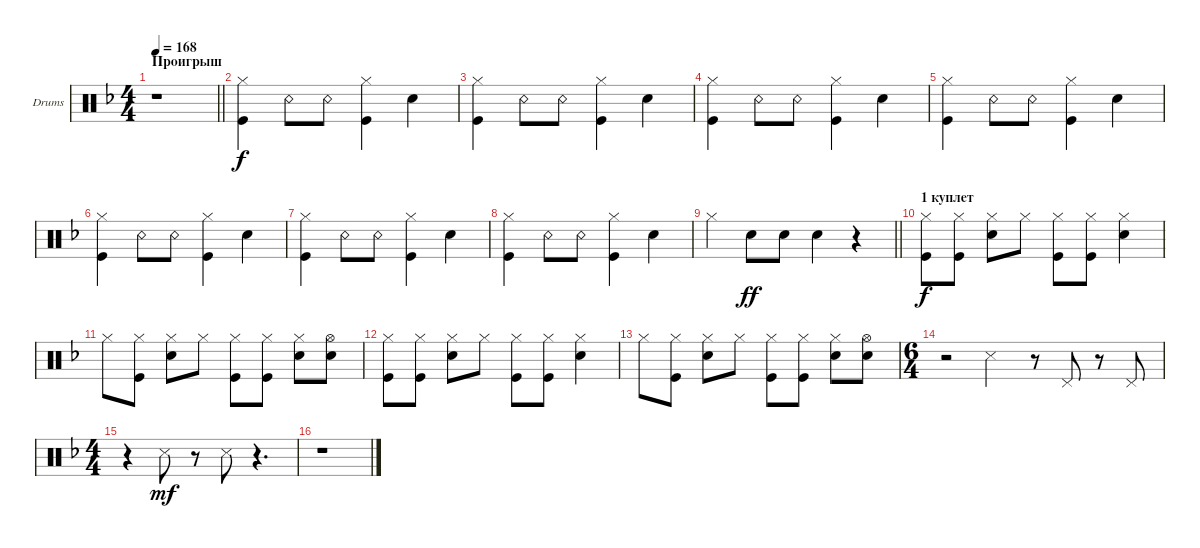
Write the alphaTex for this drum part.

\defaultSystemsLayout 4
\bracketExtendMode groupsimilarinstruments
\firstSystemTrackNameOrientation horizontal
\otherSystemsTrackNameOrientation horizontal
\track ("Drumkit" "Drums") {instrument percussion}
\staff {score}
\articulation defaults
\ts (4 4)
\section ("" "Проигрыш")
\tempo 168
\clef neutral
\scale
0.5
\barLineRight lightlight
\ks f
r.1{dy f} |
\scale
0.25 ("Kick (hit)" "Hi-Hat (closed)").4 "Snare (rim shot)".8 "Snare (rim shot)".8 ("Kick (hit)" "Hi-Hat (closed)").4 "Snare (hit) 2".4 |
\scale
0.25 ("Kick (hit)" "Hi-Hat (closed)").4 "Snare (rim shot)".8 "Snare (rim shot)".8 ("Kick (hit)" "Hi-Hat (closed)").4 "Snare (hit) 2".4 |
\scale
0.333333 ("Kick (hit)" "Hi-Hat (closed)").4 "Snare (rim shot)".8 "Snare (rim shot)".8 ("Kick (hit)" "Hi-Hat (closed)").4 "Snare (hit) 2".4 |
\scale
0.333333 ("Kick (hit)" "Hi-Hat (closed)").4 "Snare (rim shot)".8 "Snare (rim shot)".8 ("Kick (hit)" "Hi-Hat (closed)").4 "Snare (hit) 2".4 |
\scale
0.333333 ("Kick (hit)" "Hi-Hat (closed)").4 "Snare (rim shot)".8 "Snare (rim shot)".8 ("Kick (hit)" "Hi-Hat (closed)").4 "Snare (hit) 2".4 |
\scale
0.333333 ("Kick (hit)" "Hi-Hat (closed)").4 "Snare (rim shot)".8 "Snare (rim shot)".8 ("Kick (hit)" "Hi-Hat (closed)").4 "Snare (hit) 2".4 |
\scale
0.333333 ("Kick (hit)" "Hi-Hat (closed)").4 "Snare (rim shot)".8 "Snare (rim shot)".8 ("Kick (hit)" "Hi-Hat (closed)").4 "Snare (hit) 2".4 |
\scale
0.333333
\barLineRight lightlight "Hi-Hat (closed)".4 "Snare (hit) 2".8{dy ff} "Snare (hit) 2".8 "Snare (hit) 2".4
r.4 |
\section ("" "1 куплет")
\scale
0.333333 ("Hi-Hat (closed)" "Kick (hit)").8{dy f} ("Hi-Hat (closed)" "Kick (hit)").8 ("Hi-Hat (closed)" "Snare (hit) 2").8 "Hi-Hat (closed)".8 ("Hi-Hat (closed)" "Kick (hit)").8 ("Hi-Hat (closed)" "Kick (hit)").8 ("Hi-Hat (closed)" "Snare (hit) 2").4 |
\scale
0.333333 "Hi-Hat (closed)".8 ("Hi-Hat (closed)" "Kick (hit)").8 ("Hi-Hat (closed)" "Snare (hit) 2").8 "Hi-Hat (closed)".8 ("Hi-Hat (closed)" "Kick (hit)").8 ("Hi-Hat (closed)" "Kick (hit)").8 ("Hi-Hat (closed)" "Snare (hit) 2").8 ("Hi-Hat (open)" "Snare (hit) 2").8 |
\scale
0.333333 ("Hi-Hat (closed)" "Kick (hit)").8 ("Hi-Hat (closed)" "Kick (hit)").8 ("Hi-Hat (closed)" "Snare (hit) 2").8 "Hi-Hat (closed)".8 ("Hi-Hat (closed)" "Kick (hit)").8 ("Hi-Hat (closed)" "Kick (hit)").8 ("Hi-Hat (closed)" "Snare (hit) 2").4 |
\scale
0.2 "Hi-Hat (closed)".8 ("Hi-Hat (closed)" "Kick (hit)").8 ("Hi-Hat (closed)" "Snare (hit) 2").8 "Hi-Hat (closed)".8 ("Hi-Hat (closed)" "Kick (hit)").8 ("Hi-Hat (closed)" "Kick (hit)").8 ("Hi-Hat (closed)" "Snare (hit) 2").8 ("Hi-Hat (open)" "Snare (hit) 2").8 |
\ts (6 4)
\scale
0.4 r.2 "Snare (side stick) 3".2 r.8 "Pedal Hi-Hat (hit)".8 r.8 "Pedal Hi-Hat (hit)".8 |
\ts (4 4)
\scale
0.4 r.4 "Snare (side stick) 3".8{dy mf} r.8 "Snare (side stick) 3".8 r.4{d} |
\scale
0.333333 r.1
